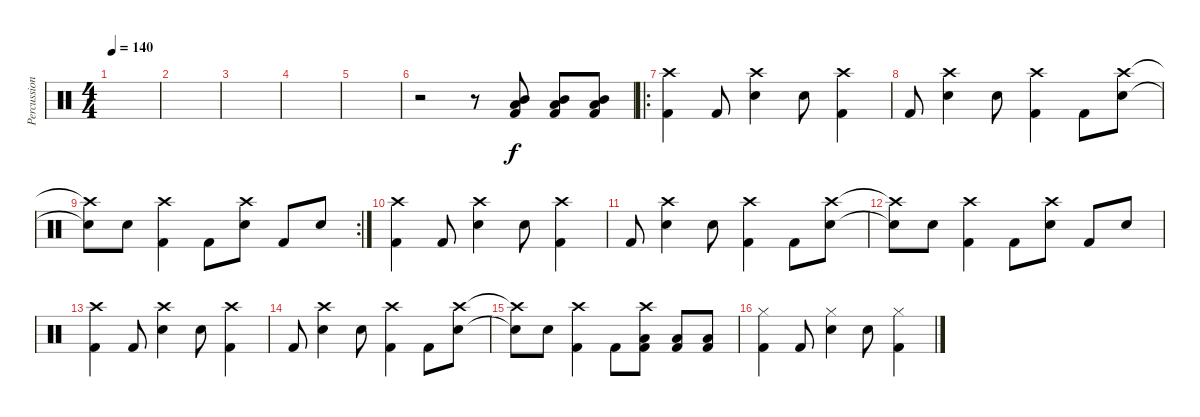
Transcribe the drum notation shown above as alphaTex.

\track ("Percussion" "Percussion") {instrument percussion}
\staff {score}
\articulation defaults
\ts (4 4)
\tempo 140
\clef neutral
\ks c
|
|
|
|
|
r.2 r.8 ("Mid Tom (hit)" "Low Floor Tom (hit)" "Kick (hit) 2").8 ("Mid Tom (hit)" "Low Floor Tom (hit)" "Kick (hit) 2").8 ("Mid Tom (hit)" "Low Floor Tom (hit)" "Kick (hit) 2").8 |
\ro
("Crash high (hit)" "Kick (hit) 2").4 "Kick (hit) 2".8 ("Crash high (hit)" "Electric Snare (hit)").4 "Electric Snare (hit)".8 ("Crash high (hit)" "Kick (hit) 2").4 |
"Kick (hit) 2".8 ("Crash high (hit)" "Electric Snare (hit)").4 "Electric Snare (hit)".8 ("Crash high (hit)" "Kick (hit) 2").4 "Kick (hit) 2".8 ("Crash high (hit)" "Electric Snare (hit)").8 |
\rc 2
("Crash high (hit)"{t} "Snare (hit)"{t}).8 "Electric Snare (hit)".8 ("Crash high (hit)" "Kick (hit) 2").4 "Kick (hit) 2".8 ("Crash high (hit)" "Electric Snare (hit)").8 "Kick (hit) 2".8 "Electric Snare (hit)".8 |
("Crash high (hit)" "Kick (hit) 2").4 "Kick (hit) 2".8 ("Crash high (hit)" "Electric Snare (hit)").4 "Electric Snare (hit)".8 ("Crash high (hit)" "Kick (hit) 2").4 |
"Kick (hit) 2".8 ("Crash high (hit)" "Electric Snare (hit)").4 "Electric Snare (hit)".8 ("Crash high (hit)" "Kick (hit) 2").4 "Kick (hit) 2".8 ("Crash high (hit)" "Electric Snare (hit)").8 |
("Crash high (hit)"{t} "Snare (hit)"{t}).8 "Electric Snare (hit)".8 ("Crash high (hit)" "Kick (hit) 2").4 "Kick (hit) 2".8 ("Crash high (hit)" "Electric Snare (hit)").8 "Kick (hit) 2".8 "Electric Snare (hit)".8 |
("Crash high (hit)" "Kick (hit) 2").4 "Kick (hit) 2".8 ("Crash high (hit)" "Electric Snare (hit)").4 "Electric Snare (hit)".8 ("Crash high (hit)" "Kick (hit) 2").4 |
"Kick (hit) 2".8 ("Crash high (hit)" "Electric Snare (hit)").4 "Electric Snare (hit)".8 ("Crash high (hit)" "Kick (hit) 2").4 "Kick (hit) 2".8 ("Crash high (hit)" "Electric Snare (hit)").8 |
("Crash high (hit)"{t} "Snare (hit)"{t}).8 "Electric Snare (hit)".8 ("Crash high (hit)" "Kick (hit) 2").4 "Kick (hit) 2".8 ("Crash high (hit)" "Low Floor Tom (hit)" "Kick (hit) 2").8 ("Low Floor Tom (hit)" "Kick (hit) 2").8 ("Low Floor Tom (hit)" "Kick (hit) 2").8 |
("Hi-Hat (closed)" "Kick (hit) 2").4 "Kick (hit) 2".8 ("Hi-Hat (closed)" "Electric Snare (hit)").4 "Electric Snare (hit)".8 ("Hi-Hat (closed)" "Kick (hit) 2").4
